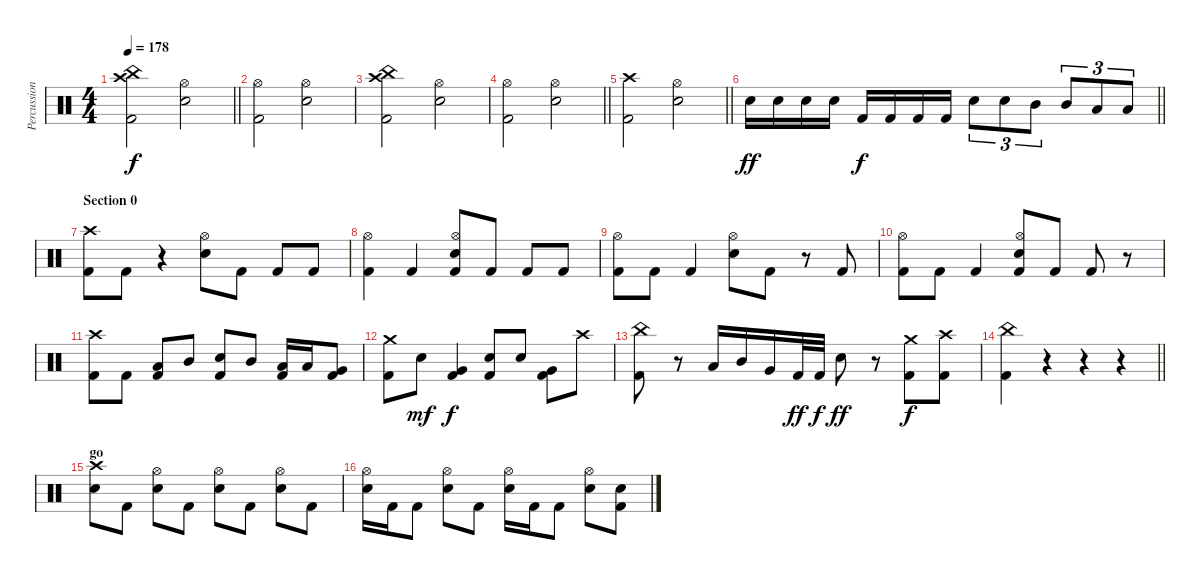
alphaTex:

\track ("Percussion" "Percussion") {instrument percussion}
\staff {score}
\articulation defaults
\ts (4 4)
\tempo 178
\clef neutral
\barLineRight lightlight
\ks c
("Crash high (hit)" "China (hit)" "Kick (hit) 2").2{dy f} ("Hi-Hat (open)" "Electric Snare (hit)").2 |
("Hi-Hat (open)" "Kick (hit) 2").2 ("Hi-Hat (open)" "Electric Snare (hit)").2 |
("Crash high (hit)" "China (hit)" "Kick (hit) 2").2 ("Hi-Hat (open)" "Electric Snare (hit)").2 |
\barLineRight lightlight
("Hi-Hat (open)" "Kick (hit) 2").2 ("Hi-Hat (open)" "Electric Snare (hit)").2 |
\barLineRight lightlight
("Crash high (hit)" "Kick (hit) 2").2 ("Hi-Hat (open)" "Electric Snare (hit)").2 |
\barLineRight lightlight "Electric Snare (hit)".16{dy ff} "Electric Snare (hit)".16 "Electric Snare (hit)".16 "Electric Snare (hit)".16 "Kick (hit) 2".16{dy f} "Kick (hit) 2".16 "Kick (hit) 2".16 "Kick (hit) 2".16 "Electric Snare (hit)".8{tu (3 2)} "Electric Snare (hit)".8{tu (3 2)} "Mid Tom (hit)".8{tu (3 2)} "Mid Tom (hit)".8{tu (3 2)} "Low Tom (hit)".8{tu (3 2)} "Low Tom (hit)".8{tu (3 2)}
|
\section ("" "Section 0")
("Crash high (hit)" "Kick (hit) 2").8 "Kick (hit) 2".8 r.4 ("Hi-Hat (open)" "Electric Snare (hit)").8 "Kick (hit) 2".8 "Kick (hit) 2".8 "Kick (hit) 2".8 |
("Hi-Hat (open)" "Kick (hit) 2").4 "Kick (hit) 2".4 ("Hi-Hat (open)" "Electric Snare (hit)" "Kick (hit) 2").8 "Kick (hit) 2".8 "Kick (hit) 2".8 "Kick (hit) 2".8 |
("Hi-Hat (open)" "Kick (hit) 2").8 "Kick (hit) 2".8 "Kick (hit) 2".4 ("Hi-Hat (open)" "Electric Snare (hit)").8 "Kick (hit) 2".8 r.8 "Kick (hit) 2".8 |
("Hi-Hat (open)" "Kick (hit) 2").8 "Kick (hit) 2".8 "Kick (hit) 2".4 ("Hi-Hat (open)" "Electric Snare (hit)" "Kick (hit) 2").8 "Kick (hit) 2".8 "Kick (hit) 2".8 r.8 |
("Crash high (hit)" "Kick (hit) 2").8 "Kick (hit) 2".8 ("Low Tom (hit)" "Kick (hit) 2").8 "Mid Tom (hit)".8 ("Electric Snare (hit)" "Kick (hit) 2").8 "Mid Tom (hit)".8 ("Low Tom (hit)" "Kick (hit) 2").16 "Low Tom (hit)".16 ("Very Low Tom (hit)" "Kick (hit) 2").8 |
("Crash medium (hit)" "Kick (hit) 2").8 "Electric Snare (hit)".8{dy mf} ("Very Low Tom (hit)" "Kick (hit) 2").4{dy f} ("Electric Snare (hit)" "Kick (hit) 2").8 "Electric Snare (hit)".8 ("Very Low Tom (hit)" "Kick (hit) 2").8 "Crash high (hit)".8 |
("China (hit)" "Kick (hit) 2").8 r.8 "Low Tom (hit)".16 "Mid Tom (hit)".16 "Very Low Tom (hit)".16 "Kick (hit) 2".32{dy ff} "Kick (hit) 2".32{dy f} "Electric Snare (hit)".8{dy ff} r.8 ("Crash medium (hit)" "Kick (hit) 2").8{dy f} ("Crash high (hit)" "Kick (hit) 2").8 |
\barLineRight lightlight
("China (hit)" "Kick (hit) 2").4 r.4 r.4 r.4 |
\section ("" "go")
("Crash high (hit)" "Electric Snare (hit)").8 "Kick (hit) 2".8 ("Hi-Hat (open)" "Electric Snare (hit)").8 "Kick (hit) 2".8 ("Hi-Hat (open)" "Electric Snare (hit)").8 "Kick (hit) 2".8 ("Hi-Hat (open)" "Electric Snare (hit)").8 "Kick (hit) 2".8 |
("Hi-Hat (open)" "Electric Snare (hit)").16 "Kick (hit) 2".16 "Kick (hit) 2".8 ("Hi-Hat (open)" "Electric Snare (hit)").8 "Kick (hit) 2".8 ("Hi-Hat (open)" "Electric Snare (hit)").16 "Kick (hit) 2".16 "Kick (hit) 2".8 ("Hi-Hat (open)" "Electric Snare (hit)").8 ("Electric Snare (hit)" "Kick (hit) 2").8
